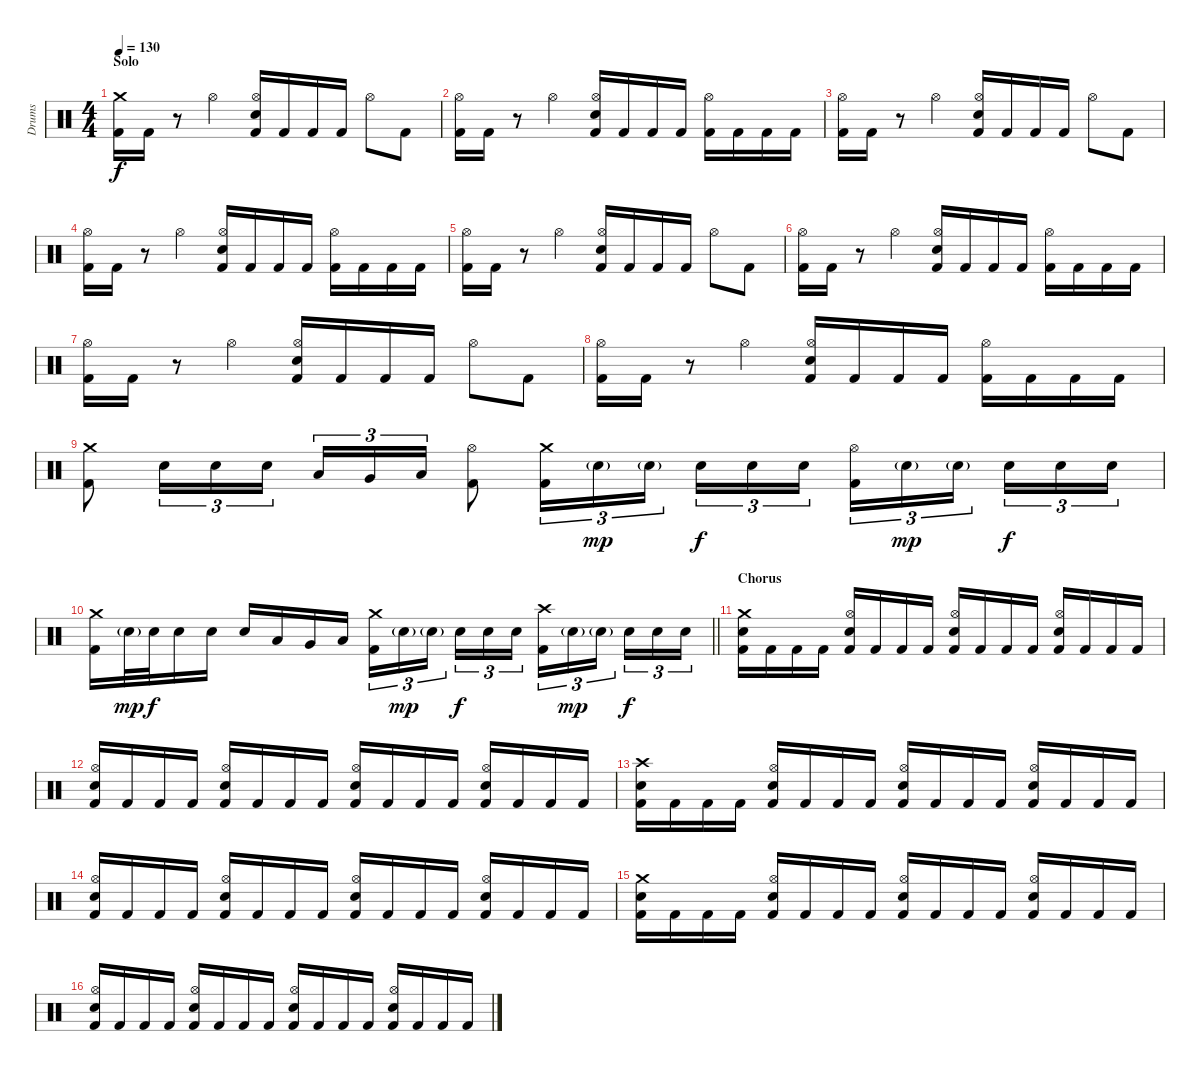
\track ("Drums" "Drums") {instrument percussion}
\staff {score}
\articulation defaults
\ts (4 4)
\section ("" "Solo")
\tempo 130
\clef neutral
\ks c
("Crash medium (hit)" "Kick (hit) 2").16{dy f} "Kick (hit) 2".16 r.8 "Hi-Hat (open)".4 ("Hi-Hat (open)" "Electric Snare (hit)" "Kick (hit) 2").16 "Kick (hit) 2".16 "Kick (hit) 2".16 "Kick (hit) 2".16 "Hi-Hat (open)".8 "Kick (hit) 2".8 |
("Hi-Hat (open)" "Kick (hit) 2").16 "Kick (hit) 2".16 r.8 "Hi-Hat (open)".4 ("Hi-Hat (open)" "Electric Snare (hit)" "Kick (hit) 2").16 "Kick (hit) 2".16 "Kick (hit) 2".16 "Kick (hit) 2".16 ("Hi-Hat (open)" "Kick (hit) 2").16 "Kick (hit) 2".16 "Kick (hit) 2".16 "Kick (hit) 2".16 |
("Hi-Hat (open)" "Kick (hit) 2").16 "Kick (hit) 2".16 r.8 "Hi-Hat (open)".4 ("Hi-Hat (open)" "Electric Snare (hit)" "Kick (hit) 2").16 "Kick (hit) 2".16 "Kick (hit) 2".16 "Kick (hit) 2".16 "Hi-Hat (open)".8 "Kick (hit) 2".8 |
("Hi-Hat (open)" "Kick (hit) 2").16 "Kick (hit) 2".16 r.8 "Hi-Hat (open)".4 ("Hi-Hat (open)" "Electric Snare (hit)" "Kick (hit) 2").16 "Kick (hit) 2".16 "Kick (hit) 2".16 "Kick (hit) 2".16 ("Hi-Hat (open)" "Kick (hit) 2").16 "Kick (hit) 2".16 "Kick (hit) 2".16 "Kick (hit) 2".16 |
("Hi-Hat (open)" "Kick (hit) 2").16 "Kick (hit) 2".16 r.8 "Hi-Hat (open)".4 ("Hi-Hat (open)" "Electric Snare (hit)" "Kick (hit) 2").16 "Kick (hit) 2".16 "Kick (hit) 2".16 "Kick (hit) 2".16 "Hi-Hat (open)".8 "Kick (hit) 2".8 |
("Hi-Hat (open)" "Kick (hit) 2").16 "Kick (hit) 2".16 r.8 "Hi-Hat (open)".4 ("Hi-Hat (open)" "Electric Snare (hit)" "Kick (hit) 2").16 "Kick (hit) 2".16 "Kick (hit) 2".16 "Kick (hit) 2".16 ("Hi-Hat (open)" "Kick (hit) 2").16 "Kick (hit) 2".16 "Kick (hit) 2".16 "Kick (hit) 2".16 |
("Hi-Hat (open)" "Kick (hit) 2").16 "Kick (hit) 2".16 r.8 "Hi-Hat (open)".4 ("Hi-Hat (open)" "Electric Snare (hit)" "Kick (hit) 2").16 "Kick (hit) 2".16 "Kick (hit) 2".16 "Kick (hit) 2".16 "Hi-Hat (open)".8 "Kick (hit) 2".8 |
("Hi-Hat (open)" "Kick (hit) 2").16 "Kick (hit) 2".16 r.8 "Hi-Hat (open)".4 ("Hi-Hat (open)" "Electric Snare (hit)" "Kick (hit) 2").16 "Kick (hit) 2".16 "Kick (hit) 2".16 "Kick (hit) 2".16 ("Hi-Hat (open)" "Kick (hit) 2").16 "Kick (hit) 2".16 "Kick (hit) 2".16 "Kick (hit) 2".16 |
("Crash medium (hit)" "Kick (hit) 2").8 "Electric Snare (hit)".16{tu (3 2)} "Electric Snare (hit)".16{tu (3 2)} "Electric Snare (hit)".16{tu (3 2)} "Low Tom (hit)".16{tu (3 2)} "Very Low Tom (hit)".16{tu (3 2)} "Low Floor Tom (hit)".16{tu (3 2)} ("Hi-Hat (open)" "Kick (hit) 2").8 ("Crash medium (hit)" "Kick (hit) 2").16{tu (3 2)} "Electric Snare (hit)"{g}.16{tu (3 2) dy mp} "Electric Snare (hit)"{g}.16{tu (3 2) beam splitsecondary} "Electric Snare (hit)".16{tu (3 2) dy f} "Electric Snare (hit)".16{tu (3 2)} "Electric Snare (hit)".16{tu (3 2)} ("Hi-Hat (open)" "Kick (hit) 2").16{tu (3 2)} "Electric Snare (hit)"{g}.16{tu (3 2) dy mp} "Electric Snare (hit)"{g}.16{tu (3 2) beam splitsecondary} "Electric Snare (hit)".16{tu (3 2) dy f} "Electric Snare (hit)".16{tu (3 2)} "Electric Snare (hit)".16{tu (3 2)} |
\barLineRight lightlight
("Crash medium (hit)" "Kick (hit) 2").16 "Electric Snare (hit)"{g}.32{dy mp} "Electric Snare (hit)".32{dy f} "Electric Snare (hit)".16 "Electric Snare (hit)".16 "Electric Snare (hit)".16 "Low Tom (hit)".16 "Very Low Tom (hit)".16 "Low Floor Tom (hit)".16 ("Crash medium (hit)" "Kick (hit) 2").16{tu (3 2)} "Electric Snare (hit)"{g}.16{tu (3 2) dy mp} "Electric Snare (hit)"{g}.16{tu (3 2) beam splitsecondary} "Electric Snare (hit)".16{tu (3 2) dy f} "Electric Snare (hit)".16{tu (3 2)} "Electric Snare (hit)".16{tu (3 2)} ("Crash high (hit)" "Kick (hit) 2").16{tu (3 2)} "Electric Snare (hit)"{g}.16{tu (3 2) dy mp} "Electric Snare (hit)"{g}.16{tu (3 2) beam splitsecondary} "Electric Snare (hit)".16{tu (3 2) dy f} "Electric Snare (hit)".16{tu (3 2)} "Electric Snare (hit)".16{tu (3 2)} |
\section ("" "Chorus")
("Crash medium (hit)" "Electric Snare (hit)" "Kick (hit) 2").16 "Kick (hit) 2".16 "Kick (hit) 2".16 "Kick (hit) 2".16 ("Hi-Hat (open)" "Electric Snare (hit)" "Kick (hit) 2").16 "Kick (hit) 2".16 "Kick (hit) 2".16 "Kick (hit) 2".16 ("Hi-Hat (open)" "Electric Snare (hit)" "Kick (hit) 2").16 "Kick (hit) 2".16 "Kick (hit) 2".16 "Kick (hit) 2".16 ("Hi-Hat (open)" "Electric Snare (hit)" "Kick (hit) 2").16 "Kick (hit) 2".16 "Kick (hit) 2".16 "Kick (hit) 2".16 |
("Hi-Hat (open)" "Electric Snare (hit)" "Kick (hit) 2").16 "Kick (hit) 2".16 "Kick (hit) 2".16 "Kick (hit) 2".16 ("Hi-Hat (open)" "Electric Snare (hit)" "Kick (hit) 2").16 "Kick (hit) 2".16 "Kick (hit) 2".16 "Kick (hit) 2".16 ("Hi-Hat (open)" "Electric Snare (hit)" "Kick (hit) 2").16 "Kick (hit) 2".16 "Kick (hit) 2".16 "Kick (hit) 2".16 ("Hi-Hat (open)" "Electric Snare (hit)" "Kick (hit) 2").16 "Kick (hit) 2".16 "Kick (hit) 2".16 "Kick (hit) 2".16 |
("Crash high (hit)" "Electric Snare (hit)" "Kick (hit) 2").16 "Kick (hit) 2".16 "Kick (hit) 2".16 "Kick (hit) 2".16 ("Hi-Hat (open)" "Electric Snare (hit)" "Kick (hit) 2").16 "Kick (hit) 2".16 "Kick (hit) 2".16 "Kick (hit) 2".16 ("Hi-Hat (open)" "Electric Snare (hit)" "Kick (hit) 2").16 "Kick (hit) 2".16 "Kick (hit) 2".16 "Kick (hit) 2".16 ("Hi-Hat (open)" "Electric Snare (hit)" "Kick (hit) 2").16 "Kick (hit) 2".16 "Kick (hit) 2".16 "Kick (hit) 2".16 |
("Hi-Hat (open)" "Electric Snare (hit)" "Kick (hit) 2").16 "Kick (hit) 2".16 "Kick (hit) 2".16 "Kick (hit) 2".16 ("Hi-Hat (open)" "Electric Snare (hit)" "Kick (hit) 2").16 "Kick (hit) 2".16 "Kick (hit) 2".16 "Kick (hit) 2".16 ("Hi-Hat (open)" "Electric Snare (hit)" "Kick (hit) 2").16 "Kick (hit) 2".16 "Kick (hit) 2".16 "Kick (hit) 2".16 ("Hi-Hat (open)" "Electric Snare (hit)" "Kick (hit) 2").16 "Kick (hit) 2".16 "Kick (hit) 2".16 "Kick (hit) 2".16 |
("Crash medium (hit)" "Electric Snare (hit)" "Kick (hit) 2").16 "Kick (hit) 2".16 "Kick (hit) 2".16 "Kick (hit) 2".16 ("Hi-Hat (open)" "Electric Snare (hit)" "Kick (hit) 2").16 "Kick (hit) 2".16 "Kick (hit) 2".16 "Kick (hit) 2".16 ("Hi-Hat (open)" "Electric Snare (hit)" "Kick (hit) 2").16 "Kick (hit) 2".16 "Kick (hit) 2".16 "Kick (hit) 2".16 ("Hi-Hat (open)" "Electric Snare (hit)" "Kick (hit) 2").16 "Kick (hit) 2".16 "Kick (hit) 2".16 "Kick (hit) 2".16 |
("Hi-Hat (open)" "Electric Snare (hit)" "Kick (hit) 2").16 "Kick (hit) 2".16 "Kick (hit) 2".16 "Kick (hit) 2".16 ("Hi-Hat (open)" "Electric Snare (hit)" "Kick (hit) 2").16 "Kick (hit) 2".16 "Kick (hit) 2".16 "Kick (hit) 2".16 ("Hi-Hat (open)" "Electric Snare (hit)" "Kick (hit) 2").16 "Kick (hit) 2".16 "Kick (hit) 2".16 "Kick (hit) 2".16 ("Hi-Hat (open)" "Electric Snare (hit)" "Kick (hit) 2").16 "Kick (hit) 2".16 "Kick (hit) 2".16 "Kick (hit) 2".16
